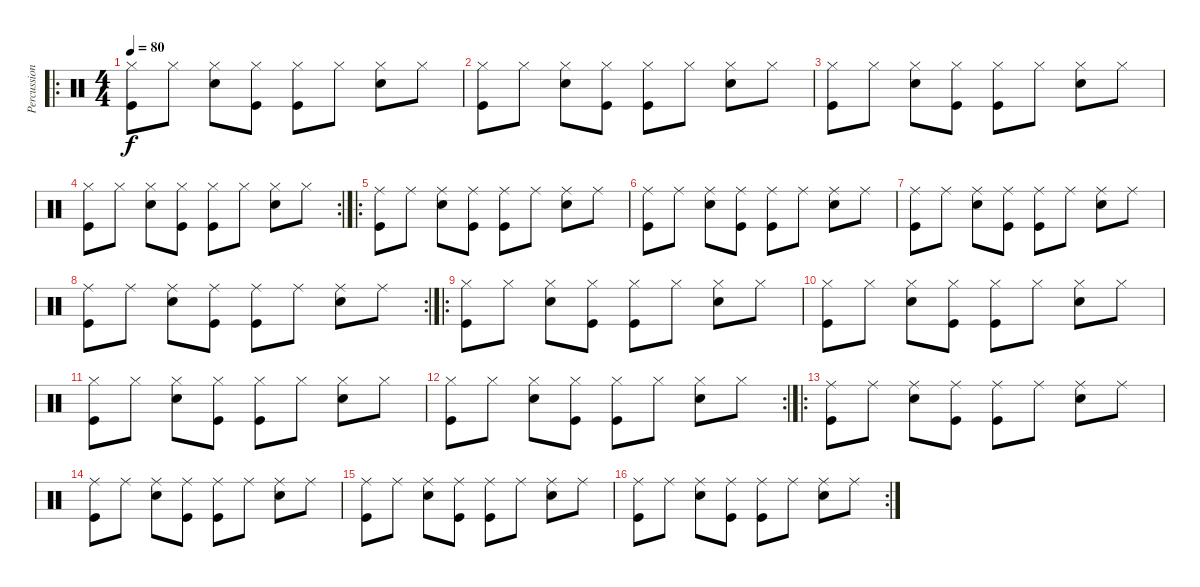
\track ("Percussion" "Percussion") {instrument percussion}
\staff {score}
\articulation defaults
\ro
\ts (4 4)
\tempo 80
\clef neutral
\ks c
("Hi-Hat (closed)" "Kick (hit)").8{dy f} "Hi-Hat (closed)".8 ("Hi-Hat (closed)" "Snare (hit) 2").8 ("Hi-Hat (closed)" "Kick (hit)").8 ("Hi-Hat (closed)" "Kick (hit)").8 "Hi-Hat (closed)".8 ("Hi-Hat (closed)" "Snare (hit) 2").8 "Hi-Hat (closed)".8 |
("Hi-Hat (closed)" "Kick (hit)").8 "Hi-Hat (closed)".8 ("Hi-Hat (closed)" "Snare (hit) 2").8 ("Hi-Hat (closed)" "Kick (hit)").8 ("Hi-Hat (closed)" "Kick (hit)").8 "Hi-Hat (closed)".8 ("Hi-Hat (closed)" "Snare (hit) 2").8 "Hi-Hat (closed)".8 |
("Hi-Hat (closed)" "Kick (hit)").8 "Hi-Hat (closed)".8 ("Hi-Hat (closed)" "Snare (hit) 2").8 ("Hi-Hat (closed)" "Kick (hit)").8 ("Hi-Hat (closed)" "Kick (hit)").8 "Hi-Hat (closed)".8 ("Hi-Hat (closed)" "Snare (hit) 2").8 "Hi-Hat (closed)".8 |
\rc 2
("Hi-Hat (closed)" "Kick (hit)").8 "Hi-Hat (closed)".8 ("Hi-Hat (closed)" "Snare (hit) 2").8 ("Hi-Hat (closed)" "Kick (hit)").8 ("Hi-Hat (closed)" "Kick (hit)").8 "Hi-Hat (closed)".8 ("Hi-Hat (closed)" "Snare (hit) 2").8 "Hi-Hat (closed)".8 |
\ro
("Ride (middle)" "Kick (hit)").8 "Ride (middle)".8 ("Ride (middle)" "Snare (hit) 2").8 ("Ride (middle)" "Kick (hit)").8 ("Ride (middle)" "Kick (hit)").8 "Ride (middle)".8 ("Ride (middle)" "Snare (hit) 2").8 "Ride (middle)".8 |
("Ride (middle)" "Kick (hit)").8 "Ride (middle)".8 ("Ride (middle)" "Snare (hit) 2").8 ("Ride (middle)" "Kick (hit)").8 ("Ride (middle)" "Kick (hit)").8 "Ride (middle)".8 ("Ride (middle)" "Snare (hit) 2").8 "Ride (middle)".8 |
("Ride (middle)" "Kick (hit)").8 "Ride (middle)".8 ("Ride (middle)" "Snare (hit) 2").8 ("Ride (middle)" "Kick (hit)").8 ("Ride (middle)" "Kick (hit)").8 "Ride (middle)".8 ("Ride (middle)" "Snare (hit) 2").8 "Ride (middle)".8 |
\rc 2
("Ride (middle)" "Kick (hit)").8 "Ride (middle)".8 ("Ride (middle)" "Snare (hit) 2").8 ("Ride (middle)" "Kick (hit)").8 ("Ride (middle)" "Kick (hit)").8 "Ride (middle)".8 ("Ride (middle)" "Snare (hit) 2").8 "Ride (middle)".8 |
\ro
("Hi-Hat (closed)" "Kick (hit)").8 "Hi-Hat (closed)".8 ("Hi-Hat (closed)" "Snare (hit) 2").8 ("Hi-Hat (closed)" "Kick (hit)").8 ("Hi-Hat (closed)" "Kick (hit)").8 "Hi-Hat (closed)".8 ("Hi-Hat (closed)" "Snare (hit) 2").8 "Hi-Hat (closed)".8 |
("Hi-Hat (closed)" "Kick (hit)").8 "Hi-Hat (closed)".8 ("Hi-Hat (closed)" "Snare (hit) 2").8 ("Hi-Hat (closed)" "Kick (hit)").8 ("Hi-Hat (closed)" "Kick (hit)").8 "Hi-Hat (closed)".8 ("Hi-Hat (closed)" "Snare (hit) 2").8 "Hi-Hat (closed)".8 |
("Hi-Hat (closed)" "Kick (hit)").8 "Hi-Hat (closed)".8 ("Hi-Hat (closed)" "Snare (hit) 2").8 ("Hi-Hat (closed)" "Kick (hit)").8 ("Hi-Hat (closed)" "Kick (hit)").8 "Hi-Hat (closed)".8 ("Hi-Hat (closed)" "Snare (hit) 2").8 "Hi-Hat (closed)".8 |
\rc 2
("Hi-Hat (closed)" "Kick (hit)").8 "Hi-Hat (closed)".8 ("Hi-Hat (closed)" "Snare (hit) 2").8 ("Hi-Hat (closed)" "Kick (hit)").8 ("Hi-Hat (closed)" "Kick (hit)").8 "Hi-Hat (closed)".8 ("Hi-Hat (closed)" "Snare (hit) 2").8 "Hi-Hat (closed)".8 |
\ro
("Ride (middle)" "Kick (hit)").8 "Ride (middle)".8 ("Ride (middle)" "Snare (hit) 2").8 ("Ride (middle)" "Kick (hit)").8 ("Ride (middle)" "Kick (hit)").8 "Ride (middle)".8 ("Ride (middle)" "Snare (hit) 2").8 "Ride (middle)".8 |
("Ride (middle)" "Kick (hit)").8 "Ride (middle)".8 ("Ride (middle)" "Snare (hit) 2").8 ("Ride (middle)" "Kick (hit)").8 ("Ride (middle)" "Kick (hit)").8 "Ride (middle)".8 ("Ride (middle)" "Snare (hit) 2").8 "Ride (middle)".8 |
("Ride (middle)" "Kick (hit)").8 "Ride (middle)".8 ("Ride (middle)" "Snare (hit) 2").8 ("Ride (middle)" "Kick (hit)").8 ("Ride (middle)" "Kick (hit)").8 "Ride (middle)".8 ("Ride (middle)" "Snare (hit) 2").8 "Ride (middle)".8 |
\rc 2
("Ride (middle)" "Kick (hit)").8 "Ride (middle)".8 ("Ride (middle)" "Snare (hit) 2").8 ("Ride (middle)" "Kick (hit)").8 ("Ride (middle)" "Kick (hit)").8 "Ride (middle)".8 ("Ride (middle)" "Snare (hit) 2").8 "Ride (middle)".8
